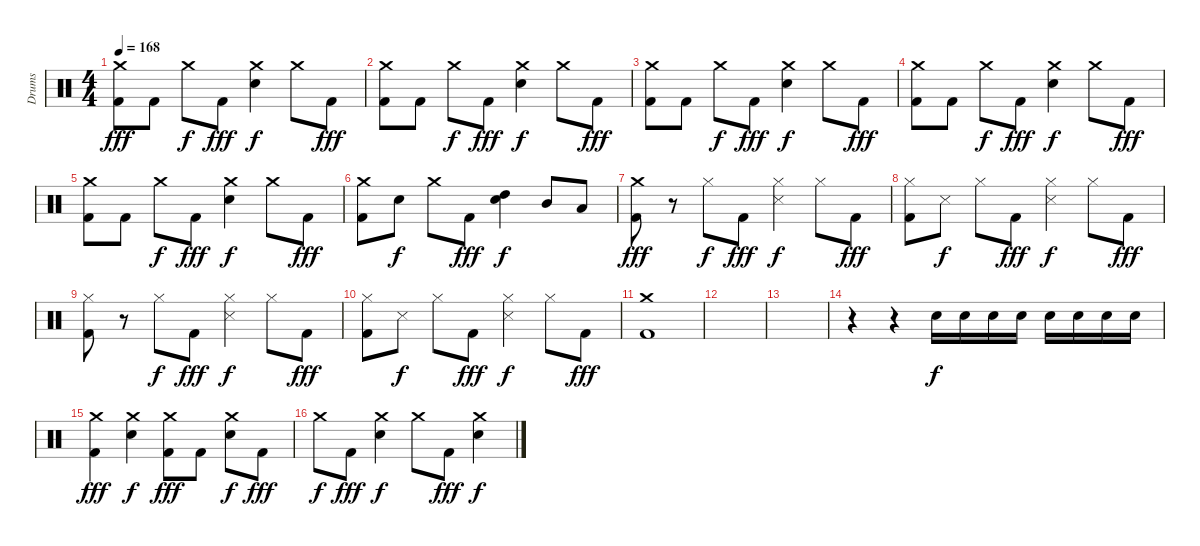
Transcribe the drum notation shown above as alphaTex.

\track ("Drums" "Drums") {instrument percussion}
\staff {score}
\articulation defaults
\ts (4 4)
\tempo 168
\clef neutral
\ks c
("Crash medium (hit)" "Kick (hit) 2").8{dy fff} "Kick (hit) 2".8 "Crash medium (hit)".8{dy f} "Kick (hit) 2".8{dy fff} ("Crash medium (hit)" "Electric Snare (hit)").4{dy f} "Crash medium (hit)".8 "Kick (hit) 2".8{dy fff} |
("Crash medium (hit)" "Kick (hit) 2").8 "Kick (hit) 2".8 "Crash medium (hit)".8{dy f} "Kick (hit) 2".8{dy fff} ("Crash medium (hit)" "Electric Snare (hit)").4{dy f} "Crash medium (hit)".8 "Kick (hit) 2".8{dy fff} |
("Crash medium (hit)" "Kick (hit) 2").8 "Kick (hit) 2".8 "Crash medium (hit)".8{dy f} "Kick (hit) 2".8{dy fff} ("Crash medium (hit)" "Electric Snare (hit)").4{dy f} "Crash medium (hit)".8 "Kick (hit) 2".8{dy fff} |
("Crash medium (hit)" "Kick (hit) 2").8 "Kick (hit) 2".8 "Crash medium (hit)".8{dy f} "Kick (hit) 2".8{dy fff} ("Crash medium (hit)" "Electric Snare (hit)").4{dy f} "Crash medium (hit)".8 "Kick (hit) 2".8{dy fff} |
("Crash medium (hit)" "Kick (hit) 2").8 "Kick (hit) 2".8 "Crash medium (hit)".8{dy f} "Kick (hit) 2".8{dy fff} ("Crash medium (hit)" "Electric Snare (hit)").4{dy f} "Crash medium (hit)".8 "Kick (hit) 2".8{dy fff} |
("Crash medium (hit)" "Kick (hit) 2").8 "Electric Snare (hit)".8{dy f} "Crash medium (hit)".8 "Kick (hit) 2".8{dy fff} ("High Tom (hit)" "Electric Snare (hit)").4{dy f} "Mid Tom (hit)".8 "Low Tom (hit)".8 |
("Crash medium (hit)" "Kick (hit) 2").8{dy fff} r.8 "Hi-Hat (closed)".8{dy f} "Kick (hit) 2".8{dy fff} ("Hi-Hat (closed)" "Snare (side stick) 3").4{dy f} "Hi-Hat (closed)".8 "Kick (hit) 2".8{dy fff} |
("Hi-Hat (closed)" "Kick (hit) 2").8 "Snare (side stick) 3".8{dy f} "Hi-Hat (closed)".8 "Kick (hit) 2".8{dy fff} ("Hi-Hat (closed)" "Snare (side stick) 3").4{dy f} "Hi-Hat (closed)".8 "Kick (hit) 2".8{dy fff} |
("Hi-Hat (closed)" "Kick (hit) 2").8 r.8 "Hi-Hat (closed)".8{dy f} "Kick (hit) 2".8{dy fff} ("Hi-Hat (closed)" "Snare (side stick) 3").4{dy f} "Hi-Hat (closed)".8 "Kick (hit) 2".8{dy fff} |
("Hi-Hat (closed)" "Kick (hit) 2").8 "Snare (side stick) 3".8{dy f} "Hi-Hat (closed)".8 "Kick (hit) 2".8{dy fff} ("Hi-Hat (closed)" "Snare (side stick) 3").4{dy f} "Hi-Hat (closed)".8 "Kick (hit) 2".8{dy fff} |
("Crash medium (hit)" "Kick (hit) 2").1 |
|
|
r.4 r.4 "Electric Snare (hit)".16{dy f} "Electric Snare (hit)".16 "Electric Snare (hit)".16 "Electric Snare (hit)".16 "Electric Snare (hit)".16 "Electric Snare (hit)".16 "Electric Snare (hit)".16 "Electric Snare (hit)".16 |
("Crash medium (hit)" "Kick (hit) 2").4{dy fff} ("Crash medium (hit)" "Electric Snare (hit)").4{dy f} ("Crash medium (hit)" "Kick (hit) 2").8{dy fff} "Kick (hit) 2".8 ("Crash medium (hit)" "Electric Snare (hit)").8{dy f} "Kick (hit) 2".8{dy fff} |
"Crash medium (hit)".8{dy f} "Kick (hit) 2".8{dy fff} ("Crash medium (hit)" "Electric Snare (hit)").4{dy f} "Crash medium (hit)".8 "Kick (hit) 2".8{dy fff} ("Crash medium (hit)" "Electric Snare (hit)").4{dy f}
